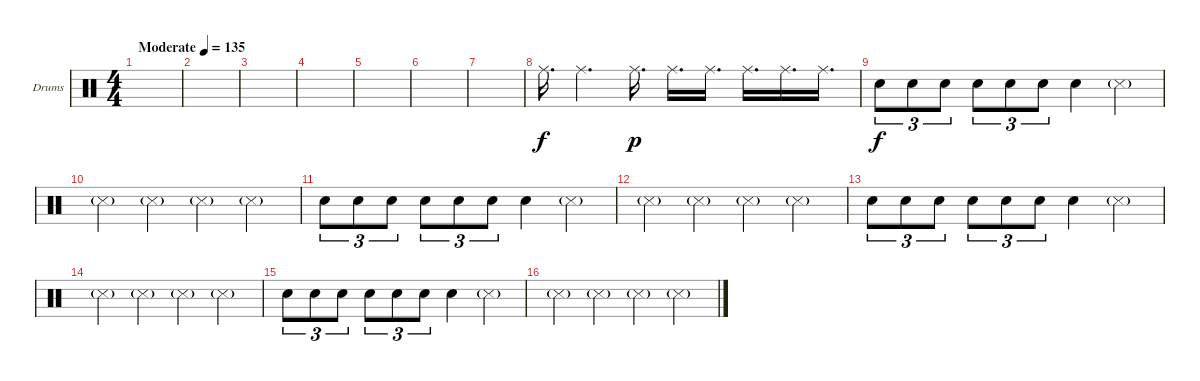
\bracketExtendMode groupsimilarinstruments
\firstSystemTrackNameOrientation horizontal
\otherSystemsTrackNameOrientation horizontal
\track ("Drumkit" "Drums") {instrument percussion}
\staff {score}
\articulation defaults
\ts (4 4)
\beaming (8 2 2 2 2)
\tempo (135 "Moderate")
\clef neutral
\scale
0.472222
\ks c
|
\scale
0.263889 |
\scale
0.263889 |
\scale
0.333333 |
\scale
0.333333 |
\scale
0.333333 |
\scale
0.333333 |
\scale
0.333333 "Ride (middle)".16{d} "Ride (middle)".4{d} "Ride (middle)".16{d dy p} "Ride (middle)".16{d} "Ride (middle)".16{d} "Ride (middle)".16{d} "Ride (middle)".16{d} "Ride (middle)".16{d} |
\scale
0.333333 "Snare (hit) 2".8{tu (3 2) dy f} "Snare (hit) 2".8{tu (3 2)} "Snare (hit) 2".8{tu (3 2)} "Snare (hit) 2".8{tu (3 2)} "Snare (hit) 2".8{tu (3 2)} "Snare (hit) 2".8{tu (3 2)} "Snare (hit) 2".4 "Snare (side stick) 3"{g}.4 |
\scale
0.333333 "Snare (side stick) 3"{g}.4 "Snare (side stick) 3"{g}.4 "Snare (side stick) 3"{g}.4 "Snare (side stick) 3"{g}.4 |
\scale
0.333333 "Snare (hit) 2".8{tu (3 2)} "Snare (hit) 2".8{tu (3 2)} "Snare (hit) 2".8{tu (3 2)} "Snare (hit) 2".8{tu (3 2)} "Snare (hit) 2".8{tu (3 2)} "Snare (hit) 2".8{tu (3 2)} "Snare (hit) 2".4 "Snare (side stick) 3"{g}.4 |
\scale
0.333333 "Snare (side stick) 3"{g}.4 "Snare (side stick) 3"{g}.4 "Snare (side stick) 3"{g}.4 "Snare (side stick) 3"{g}.4 |
\scale
0.333333 "Snare (hit) 2".8{tu (3 2)} "Snare (hit) 2".8{tu (3 2)} "Snare (hit) 2".8{tu (3 2)} "Snare (hit) 2".8{tu (3 2)} "Snare (hit) 2".8{tu (3 2)} "Snare (hit) 2".8{tu (3 2)} "Snare (hit) 2".4 "Snare (side stick) 3"{g}.4 |
\scale
0.333333 "Snare (side stick) 3"{g}.4 "Snare (side stick) 3"{g}.4 "Snare (side stick) 3"{g}.4 "Snare (side stick) 3"{g}.4 |
\scale
0.333333 "Snare (hit) 2".8{tu (3 2)} "Snare (hit) 2".8{tu (3 2)} "Snare (hit) 2".8{tu (3 2)} "Snare (hit) 2".8{tu (3 2)} "Snare (hit) 2".8{tu (3 2)} "Snare (hit) 2".8{tu (3 2)} "Snare (hit) 2".4 "Snare (side stick) 3"{g}.4 |
\scale
0.333333 "Snare (side stick) 3"{g}.4 "Snare (side stick) 3"{g}.4 "Snare (side stick) 3"{g}.4 "Snare (side stick) 3"{g}.4
